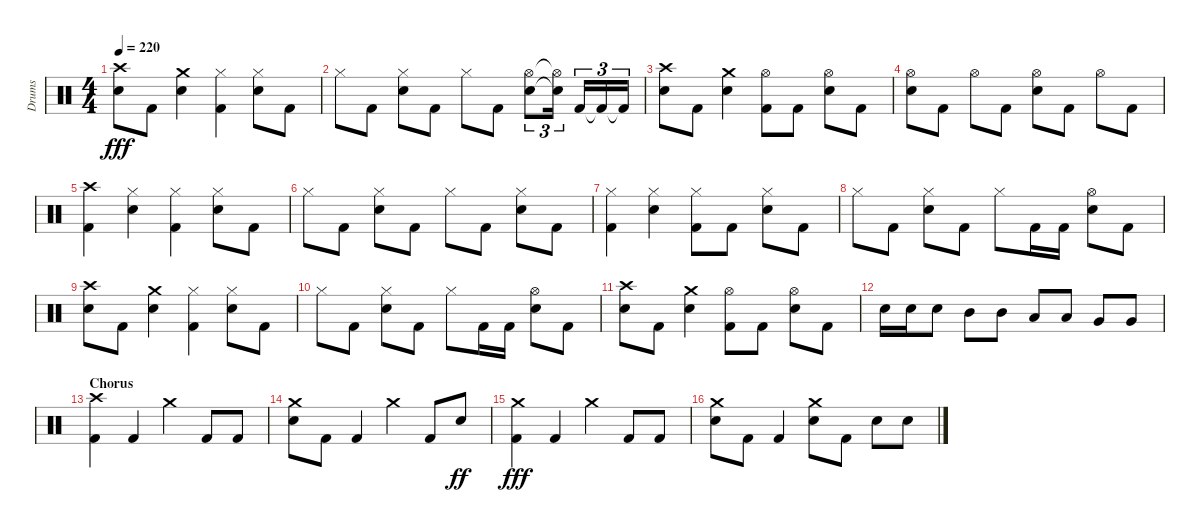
\track ("Drums" "Drums") {instrument percussion}
\staff {score}
\articulation defaults
\ts (4 4)
\tempo 220
\clef neutral
\ks aminor
("Snare (hit) 2" "Crash high (hit)").8{dy fff} "Kick (hit) 2".8 ("Snare (hit) 2" "Crash medium (hit)").4 ("Kick (hit) 2" "Hi-Hat (closed)").4 ("Snare (hit) 2" "Hi-Hat (closed)").8 "Kick (hit) 2".8 |
"Hi-Hat (closed)".8 "Kick (hit) 2".8 ("Snare (hit) 2" "Hi-Hat (closed)").8 "Kick (hit) 2".8 "Hi-Hat (closed)".8 "Kick (hit) 2".8 ("Snare (hit) 2" "Hi-Hat (open)").8{tu (3 2)} ("Snare (hit) 2"{t} "Hi-Hat (open)"{t}).16{tu (3 2)} "Kick (hit) 2".16{tu (3 2)} "Kick (hit) 2"{t}.16{tu (3 2)} "Kick (hit) 2"{t}.16{tu (3 2)} |
("Snare (hit) 2" "Crash high (hit)").8 "Kick (hit) 2".8 ("Snare (hit) 2" "Crash medium (hit)").4 ("Kick (hit) 2" "Hi-Hat (open)").8 "Kick (hit) 2".8 ("Snare (hit) 2" "Hi-Hat (open)").8 "Kick (hit) 2".8 |
("Snare (hit) 2" "Hi-Hat (open)").8 "Kick (hit) 2".8 "Hi-Hat (open)".8 "Kick (hit) 2".8 ("Snare (hit) 2" "Hi-Hat (open)").8 "Kick (hit) 2".8 "Hi-Hat (open)".8 "Kick (hit) 2".8 |
("Kick (hit) 2" "Crash high (hit)").4 ("Snare (hit) 2" "Hi-Hat (closed)").4 ("Kick (hit) 2" "Hi-Hat (closed)").4 ("Snare (hit) 2" "Hi-Hat (closed)").8 "Kick (hit) 2".8 |
"Hi-Hat (closed)".8 "Kick (hit) 2".8 ("Snare (hit) 2" "Hi-Hat (closed)").8 "Kick (hit) 2".8 "Hi-Hat (closed)".8 "Kick (hit) 2".8 ("Snare (hit) 2" "Hi-Hat (closed)").8 "Kick (hit) 2".8 |
("Kick (hit) 2" "Hi-Hat (closed)").4 ("Snare (hit) 2" "Hi-Hat (closed)").4 ("Kick (hit) 2" "Hi-Hat (closed)").8 "Kick (hit) 2".8 ("Snare (hit) 2" "Hi-Hat (closed)").8 "Kick (hit) 2".8 |
"Hi-Hat (closed)".8 "Kick (hit) 2".8 ("Snare (hit) 2" "Hi-Hat (closed)").8 "Kick (hit) 2".8 "Hi-Hat (closed)".8 "Kick (hit) 2".16 "Kick (hit) 2".16 ("Snare (hit) 2" "Hi-Hat (open)").8 "Kick (hit) 2".8 |
("Snare (hit) 2" "Crash high (hit)").8 "Kick (hit) 2".8 ("Snare (hit) 2" "Crash medium (hit)").4 ("Kick (hit) 2" "Hi-Hat (closed)").4 ("Snare (hit) 2" "Hi-Hat (closed)").8 "Kick (hit) 2".8 |
"Hi-Hat (closed)".8 "Kick (hit) 2".8 ("Snare (hit) 2" "Hi-Hat (closed)").8 "Kick (hit) 2".8 "Hi-Hat (closed)".8 "Kick (hit) 2".16 "Kick (hit) 2".16 ("Snare (hit) 2" "Hi-Hat (open)").8 "Kick (hit) 2".8 |
("Snare (hit) 2" "Crash high (hit)").8 "Kick (hit) 2".8 ("Snare (hit) 2" "Crash medium (hit)").4 ("Kick (hit) 2" "Hi-Hat (open)").8 "Kick (hit) 2".8 ("Snare (hit) 2" "Hi-Hat (open)").8 "Kick (hit) 2".8 |
"Snare (hit) 2".16 "Snare (hit) 2".16 "Snare (hit) 2".8 "Mid Tom (hit)".8 "Mid Tom (hit)".8 "Low Tom (hit)".8 "Low Tom (hit)".8 "Very Low Tom (hit)".8 "Very Low Tom (hit)".8 |
\section ("" "Chorus")
("Kick (hit) 2" "Crash high (hit)").4 "Kick (hit) 2".4 "Crash medium (hit)".4 "Kick (hit) 2".8 "Kick (hit) 2".8 |
("Snare (hit) 2" "Crash medium (hit)").8 "Kick (hit) 2".8 "Kick (hit) 2".4 "Crash medium (hit)".4 "Kick (hit) 2".8 "Snare (hit) 2".8{dy ff} |
("Kick (hit) 2" "Crash medium (hit)").4{dy fff} "Kick (hit) 2".4 "Crash medium (hit)".4 "Kick (hit) 2".8 "Kick (hit) 2".8 |
("Snare (hit) 2" "Crash medium (hit)").8 "Kick (hit) 2".8 "Kick (hit) 2".4 ("Snare (hit) 2" "Crash medium (hit)").8 "Kick (hit) 2".8 "Snare (hit) 2".8 "Snare (hit) 2".8
